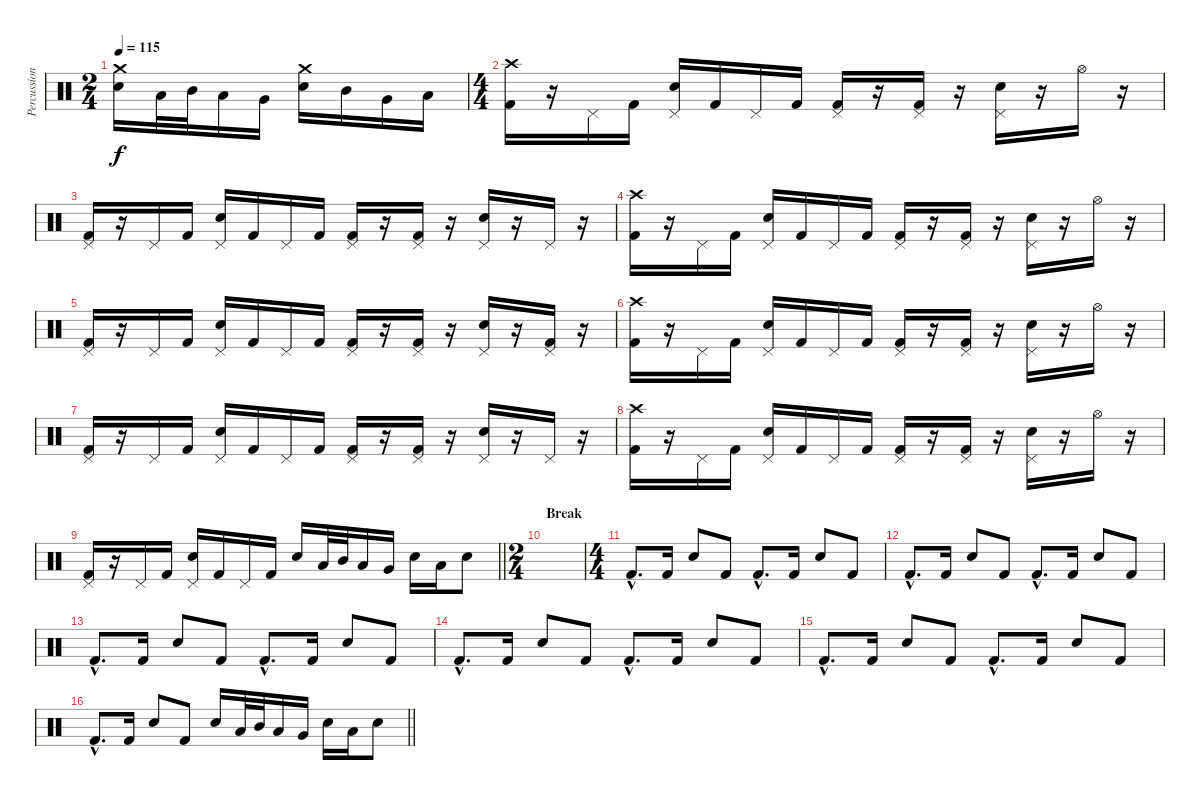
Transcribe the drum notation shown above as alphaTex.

\track ("Percussion" "Percussion") {instrument percussion}
\staff {score}
\articulation defaults
\ts (2 4)
\tempo 115
\clef neutral
\ks c
("Crash medium (hit)" "Electric Snare (hit)").16{dy f} "Low Tom (hit)".32 "Mid Tom (hit)".32 "Low Tom (hit)".16 "Very Low Tom (hit)".16 ("Crash medium (hit)" "Electric Snare (hit)").16 "Mid Tom (hit)".16 "Very Low Tom (hit)".16 "Low Floor Tom (hit)".16 |
\ts (4 4)
("Crash high (hit)" "Kick (hit) 2").16 r.16 "Pedal Hi-Hat (hit)".16 "Kick (hit) 2".16 ("Pedal Hi-Hat (hit)" "Electric Snare (hit)").16 "Kick (hit) 2".16 "Pedal Hi-Hat (hit)".16 "Kick (hit) 2".16 ("Pedal Hi-Hat (hit)" "Kick (hit) 2").16 r.16 ("Pedal Hi-Hat (hit)" "Kick (hit) 2").16 r.16 ("Pedal Hi-Hat (hit)" "Electric Snare (hit)").16 r.16 "Hi-Hat (open)".16 r.16 |
("Pedal Hi-Hat (hit)" "Kick (hit) 2").16 r.16 "Pedal Hi-Hat (hit)".16 "Kick (hit) 2".16 ("Pedal Hi-Hat (hit)" "Electric Snare (hit)").16 "Kick (hit) 2".16 "Pedal Hi-Hat (hit)".16 "Kick (hit) 2".16 ("Pedal Hi-Hat (hit)" "Kick (hit) 2").16 r.16 ("Pedal Hi-Hat (hit)" "Kick (hit) 2").16 r.16 ("Pedal Hi-Hat (hit)" "Electric Snare (hit)").16 r.16 "Pedal Hi-Hat (hit)".16 r.16 |
("Crash high (hit)" "Kick (hit) 2").16 r.16 "Pedal Hi-Hat (hit)".16 "Kick (hit) 2".16 ("Pedal Hi-Hat (hit)" "Electric Snare (hit)").16 "Kick (hit) 2".16 "Pedal Hi-Hat (hit)".16 "Kick (hit) 2".16 ("Pedal Hi-Hat (hit)" "Kick (hit) 2").16 r.16 ("Pedal Hi-Hat (hit)" "Kick (hit) 2").16 r.16 ("Pedal Hi-Hat (hit)" "Electric Snare (hit)").16 r.16 "Hi-Hat (open)".16 r.16 |
("Pedal Hi-Hat (hit)" "Kick (hit) 2").16 r.16 "Pedal Hi-Hat (hit)".16 "Kick (hit) 2".16 ("Pedal Hi-Hat (hit)" "Electric Snare (hit)").16 "Kick (hit) 2".16 "Pedal Hi-Hat (hit)".16 "Kick (hit) 2".16 ("Pedal Hi-Hat (hit)" "Kick (hit) 2").16 r.16 ("Pedal Hi-Hat (hit)" "Kick (hit) 2").16 r.16 ("Pedal Hi-Hat (hit)" "Electric Snare (hit)").16 r.16 ("Pedal Hi-Hat (hit)" "Kick (hit) 2").16 r.16 |
("Crash high (hit)" "Kick (hit) 2").16 r.16 "Pedal Hi-Hat (hit)".16 "Kick (hit) 2".16 ("Pedal Hi-Hat (hit)" "Electric Snare (hit)").16 "Kick (hit) 2".16 "Pedal Hi-Hat (hit)".16 "Kick (hit) 2".16 ("Pedal Hi-Hat (hit)" "Kick (hit) 2").16 r.16 ("Pedal Hi-Hat (hit)" "Kick (hit) 2").16 r.16 ("Pedal Hi-Hat (hit)" "Electric Snare (hit)").16 r.16 "Hi-Hat (open)".16 r.16 |
("Pedal Hi-Hat (hit)" "Kick (hit) 2").16 r.16 "Pedal Hi-Hat (hit)".16 "Kick (hit) 2".16 ("Pedal Hi-Hat (hit)" "Electric Snare (hit)").16 "Kick (hit) 2".16 "Pedal Hi-Hat (hit)".16 "Kick (hit) 2".16 ("Pedal Hi-Hat (hit)" "Kick (hit) 2").16 r.16 ("Pedal Hi-Hat (hit)" "Kick (hit) 2").16 r.16 ("Pedal Hi-Hat (hit)" "Electric Snare (hit)").16 r.16 "Pedal Hi-Hat (hit)".16 r.16 |
("Crash high (hit)" "Kick (hit) 2").16 r.16 "Pedal Hi-Hat (hit)".16 "Kick (hit) 2".16 ("Pedal Hi-Hat (hit)" "Electric Snare (hit)").16 "Kick (hit) 2".16 "Pedal Hi-Hat (hit)".16 "Kick (hit) 2".16 ("Pedal Hi-Hat (hit)" "Kick (hit) 2").16 r.16 ("Pedal Hi-Hat (hit)" "Kick (hit) 2").16 r.16 ("Pedal Hi-Hat (hit)" "Electric Snare (hit)").16 r.16 "Hi-Hat (open)".16 r.16 |
\barLineRight lightlight
("Pedal Hi-Hat (hit)" "Kick (hit) 2").16 r.16 "Pedal Hi-Hat (hit)".16 "Kick (hit) 2".16 ("Pedal Hi-Hat (hit)" "Electric Snare (hit)").16 "Kick (hit) 2".16 "Pedal Hi-Hat (hit)".16 "Kick (hit) 2".16 "Snare (hit) 2".16 "Low Tom (hit)".32 "Mid Tom (hit)".32 "Low Tom (hit)".16 "Very Low Tom (hit)".16 "Snare (hit) 2".16 "Low Tom (hit)".16 "Snare (hit) 2".8 |
\ts (2 4)
\section ("" "Break")
|
\ts (4 4)
"Kick (hit) 2"{hac}.8{d} "Kick (hit) 2".16 "Electric Snare (hit)".8 "Kick (hit) 2".8 "Kick (hit) 2"{hac}.8{d} "Kick (hit) 2".16 "Electric Snare (hit)".8 "Kick (hit) 2".8 |
"Kick (hit) 2"{hac}.8{d} "Kick (hit) 2".16 "Electric Snare (hit)".8 "Kick (hit) 2".8 "Kick (hit) 2"{hac}.8{d} "Kick (hit) 2".16 "Electric Snare (hit)".8 "Kick (hit) 2".8 |
"Kick (hit) 2"{hac}.8{d} "Kick (hit) 2".16 "Electric Snare (hit)".8 "Kick (hit) 2".8 "Kick (hit) 2"{hac}.8{d} "Kick (hit) 2".16 "Electric Snare (hit)".8 "Kick (hit) 2".8 |
"Kick (hit) 2"{hac}.8{d} "Kick (hit) 2".16 "Electric Snare (hit)".8 "Kick (hit) 2".8 "Kick (hit) 2"{hac}.8{d} "Kick (hit) 2".16 "Electric Snare (hit)".8 "Kick (hit) 2".8 |
"Kick (hit) 2"{hac}.8{d} "Kick (hit) 2".16 "Electric Snare (hit)".8 "Kick (hit) 2".8 "Kick (hit) 2"{hac}.8{d} "Kick (hit) 2".16 "Electric Snare (hit)".8 "Kick (hit) 2".8 |
\barLineRight lightlight "Kick (hit) 2"{hac}.8{d} "Kick (hit) 2".16 "Electric Snare (hit)".8 "Kick (hit) 2".8 "Snare (hit) 2".16 "Low Tom (hit)".32{volume 13} "Mid Tom (hit)".32 "Low Tom (hit)".16 "Very Low Tom (hit)".16 "Snare (hit) 2".16 "Low Tom (hit)".16 "Snare (hit) 2".8
